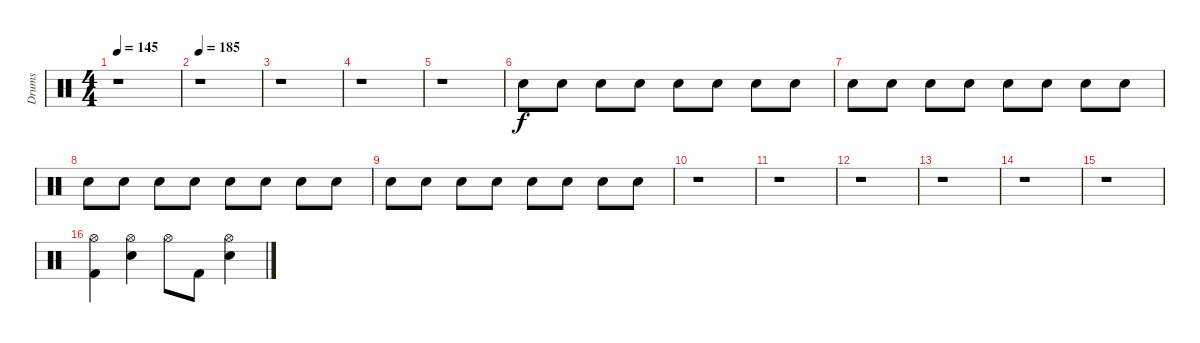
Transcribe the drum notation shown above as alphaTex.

\track ("Drums" "Drums") {instrument percussion}
\staff {score}
\articulation defaults
\ts (4 4)
\tempo 145
\clef neutral
\ks c
r.1{dy f} |
\tempo 185
r.1 |
r.1 |
r.1 |
r.1 |
"Electric Snare (hit)".8 "Electric Snare (hit)".8 "Electric Snare (hit)".8 "Electric Snare (hit)".8 "Electric Snare (hit)".8 "Electric Snare (hit)".8 "Electric Snare (hit)".8 "Electric Snare (hit)".8 |
"Electric Snare (hit)".8 "Electric Snare (hit)".8 "Electric Snare (hit)".8 "Electric Snare (hit)".8 "Electric Snare (hit)".8 "Electric Snare (hit)".8 "Electric Snare (hit)".8 "Electric Snare (hit)".8 |
"Electric Snare (hit)".8 "Electric Snare (hit)".8 "Electric Snare (hit)".8 "Electric Snare (hit)".8 "Electric Snare (hit)".8 "Electric Snare (hit)".8 "Electric Snare (hit)".8 "Electric Snare (hit)".8 |
"Electric Snare (hit)".8 "Electric Snare (hit)".8 "Electric Snare (hit)".8 "Electric Snare (hit)".8 "Electric Snare (hit)".8 "Electric Snare (hit)".8 "Electric Snare (hit)".8 "Electric Snare (hit)".8 |
r.1 |
r.1 |
r.1 |
r.1 |
r.1 |
r.1 |
("Hi-Hat (open)" "Kick (hit) 2").4 ("Hi-Hat (open)" "Electric Snare (hit)").4 "Hi-Hat (open)".8 "Kick (hit) 2".8 ("Hi-Hat (open)" "Electric Snare (hit)").4
